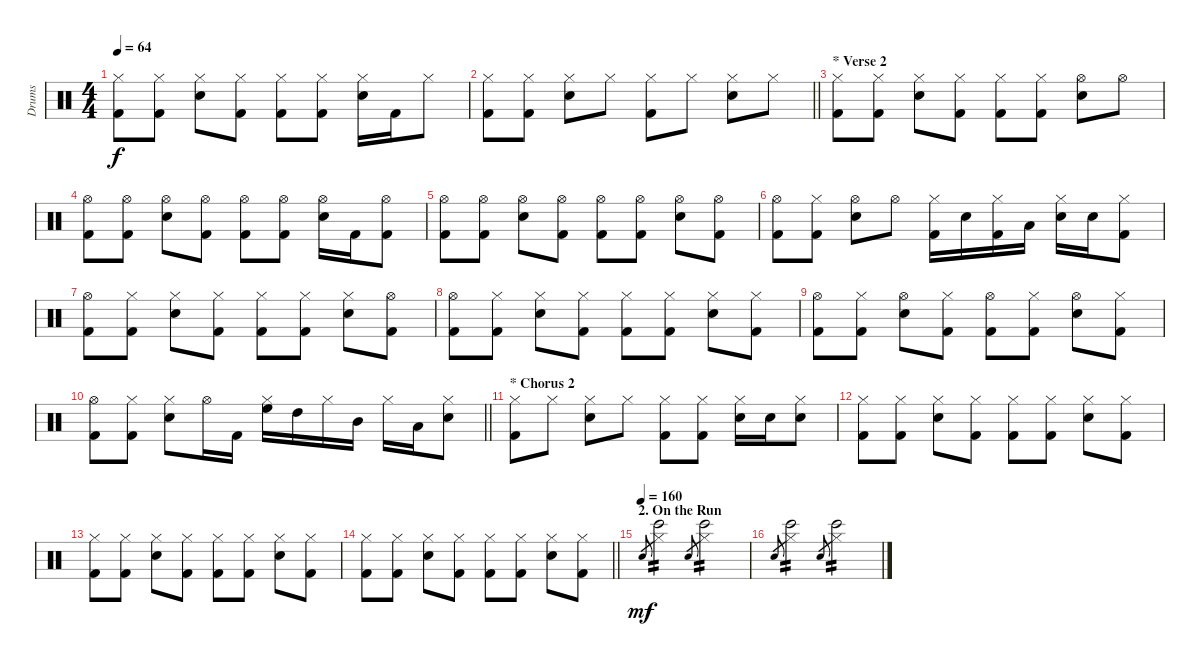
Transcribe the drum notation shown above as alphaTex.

\track ("Drums" "Drums") {instrument percussion}
\staff {score}
\articulation defaults
\ts (4 4)
\tempo 64
\clef neutral
\ks c
("Hi-Hat (closed)" "Kick (hit) 2").8{dy f} ("Hi-Hat (closed)" "Kick (hit) 2").8 ("Hi-Hat (closed)" "Electric Snare (hit)").8 ("Hi-Hat (closed)" "Kick (hit) 2").8 ("Hi-Hat (closed)" "Kick (hit) 2").8 ("Hi-Hat (closed)" "Kick (hit) 2").8 ("Hi-Hat (closed)" "Electric Snare (hit)").16 "Kick (hit) 2".16 "Hi-Hat (closed)".8 |
\barLineRight lightlight
("Hi-Hat (closed)" "Kick (hit) 2").8 ("Hi-Hat (closed)" "Kick (hit) 2").8 ("Hi-Hat (closed)" "Electric Snare (hit)").8 "Hi-Hat (closed)".8 ("Hi-Hat (closed)" "Kick (hit) 2").8 "Hi-Hat (closed)".8 ("Hi-Hat (closed)" "Electric Snare (hit)").8 "Hi-Hat (closed)".8 |
\section ("" "* Verse 2")
("Hi-Hat (closed)" "Kick (hit) 2").8 ("Hi-Hat (closed)" "Kick (hit) 2").8 ("Hi-Hat (closed)" "Electric Snare (hit)").8 ("Hi-Hat (closed)" "Kick (hit) 2").8 ("Hi-Hat (closed)" "Kick (hit) 2").8 ("Hi-Hat (closed)" "Kick (hit) 2").8 ("Hi-Hat (open)" "Electric Snare (hit)").8 "Hi-Hat (open)".8 |
("Hi-Hat (open)" "Kick (hit) 2").8 ("Hi-Hat (open)" "Kick (hit) 2").8 ("Hi-Hat (open)" "Electric Snare (hit)").8 ("Hi-Hat (open)" "Kick (hit) 2").8 ("Hi-Hat (open)" "Kick (hit) 2").8 ("Hi-Hat (open)" "Kick (hit) 2").8 ("Hi-Hat (open)" "Electric Snare (hit)").16 "Kick (hit) 2".16 ("Hi-Hat (open)" "Kick (hit) 2").8 |
("Hi-Hat (open)" "Kick (hit) 2").8 ("Hi-Hat (open)" "Kick (hit) 2").8 ("Hi-Hat (open)" "Electric Snare (hit)").8 ("Hi-Hat (open)" "Kick (hit) 2").8 ("Hi-Hat (open)" "Kick (hit) 2").8 ("Hi-Hat (open)" "Kick (hit) 2").8 ("Hi-Hat (open)" "Electric Snare (hit)").8 ("Hi-Hat (open)" "Kick (hit) 2").8 |
("Hi-Hat (open)" "Kick (hit) 2").8 ("Hi-Hat (closed)" "Kick (hit) 2").8 ("Hi-Hat (open)" "Electric Snare (hit)").8 "Hi-Hat (open)".8 ("Hi-Hat (closed)" "Kick (hit) 2").16 "Electric Snare (hit)".16 ("Hi-Hat (closed)" "Kick (hit) 2").16 "Low Tom (hit)".16 ("Hi-Hat (closed)" "Electric Snare (hit)").16 "Electric Snare (hit)".16 ("Hi-Hat (closed)" "Kick (hit) 2").8 |
("Hi-Hat (open)" "Kick (hit) 2").8 ("Hi-Hat (closed)" "Kick (hit) 2").8 ("Hi-Hat (closed)" "Electric Snare (hit)").8 ("Hi-Hat (closed)" "Kick (hit) 2").8 ("Hi-Hat (closed)" "Kick (hit) 2").8 ("Hi-Hat (closed)" "Kick (hit) 2").8 ("Hi-Hat (closed)" "Electric Snare (hit)").8 ("Hi-Hat (open)" "Kick (hit) 2").8 |
("Hi-Hat (open)" "Kick (hit) 2").8 ("Hi-Hat (closed)" "Kick (hit) 2").8 ("Hi-Hat (closed)" "Electric Snare (hit)").8 ("Hi-Hat (closed)" "Kick (hit) 2").8 ("Hi-Hat (closed)" "Kick (hit) 2").8 ("Hi-Hat (closed)" "Kick (hit) 2").8 ("Hi-Hat (closed)" "Electric Snare (hit)").8 ("Hi-Hat (closed)" "Kick (hit) 2").8 |
("Hi-Hat (open)" "Kick (hit) 2").8 ("Hi-Hat (closed)" "Kick (hit) 2").8 ("Hi-Hat (open)" "Electric Snare (hit)").8 ("Hi-Hat (closed)" "Kick (hit) 2").8 ("Hi-Hat (open)" "Kick (hit) 2").8 ("Hi-Hat (closed)" "Kick (hit) 2").8 ("Hi-Hat (open)" "Electric Snare (hit)").8 ("Hi-Hat (closed)" "Kick (hit) 2").8 |
\barLineRight lightlight
("Hi-Hat (open)" "Kick (hit) 2").8 ("Hi-Hat (closed)" "Kick (hit) 2").8 ("Hi-Hat (closed)" "Electric Snare (hit)").8 "Hi-Hat (open)".16 "Kick (hit) 2".16 ("Hi-Hat (closed)" "High Floor Tom (hit)").16 "High Tom (hit)".16 "Hi-Hat (closed)".16 "Mid Tom (hit)".16 "Hi-Hat (closed)".16 "Low Tom (hit)".16 ("Hi-Hat (closed)" "Electric Snare (hit)").8 |
\section ("" "* Chorus 2")
("Hi-Hat (closed)" "Kick (hit) 2").8 "Hi-Hat (closed)".8 ("Hi-Hat (closed)" "Electric Snare (hit)").8 "Hi-Hat (closed)".8 ("Hi-Hat (closed)" "Kick (hit) 2").8 ("Hi-Hat (closed)" "Kick (hit) 2").8 ("Hi-Hat (closed)" "Electric Snare (hit)").16 "Electric Snare (hit)".16 ("Hi-Hat (closed)" "Electric Snare (hit)").8 |
("Hi-Hat (closed)" "Kick (hit) 2").8 ("Hi-Hat (closed)" "Kick (hit) 2").8 ("Hi-Hat (closed)" "Electric Snare (hit)").8 ("Hi-Hat (closed)" "Kick (hit) 2").8 ("Hi-Hat (closed)" "Kick (hit) 2").8 ("Hi-Hat (closed)" "Kick (hit) 2").8 ("Hi-Hat (closed)" "Electric Snare (hit)").8 ("Hi-Hat (closed)" "Kick (hit) 2").8 |
("Hi-Hat (closed)" "Kick (hit) 2").8 ("Hi-Hat (closed)" "Kick (hit) 2").8 ("Hi-Hat (closed)" "Electric Snare (hit)").8 ("Hi-Hat (closed)" "Kick (hit) 2").8 ("Hi-Hat (closed)" "Kick (hit) 2").8 ("Hi-Hat (closed)" "Kick (hit) 2").8 ("Hi-Hat (closed)" "Electric Snare (hit)").8 ("Hi-Hat (closed)" "Kick (hit) 2").8 |
\barLineRight lightlight
("Hi-Hat (closed)" "Kick (hit) 2").8 ("Hi-Hat (closed)" "Kick (hit) 2").8 ("Hi-Hat (closed)" "Electric Snare (hit)").8 ("Hi-Hat (closed)" "Kick (hit) 2").8 ("Hi-Hat (closed)" "Kick (hit) 2").8 ("Hi-Hat (closed)" "Kick (hit) 2").8 ("Hi-Hat (closed)" "Electric Snare (hit)").8 ("Hi-Hat (closed)" "Kick (hit) 2").8 |
\section ("" "2. On the Run")
\tempo (160)
"Snare (hit)".8{gr dy mf} ("Hi-Hat (closed)" "Bongo High (hit)").2{tp 2 volume 12} "Snare (hit)".8{gr} ("Hi-Hat (closed)" "Bongo High (hit)").2{tp 2} |
"Snare (hit)".8{gr} ("Hi-Hat (closed)" "Bongo High (hit)").2{tp 2} "Snare (hit)".8{gr} ("Hi-Hat (closed)" "Bongo High (hit)").2{tp 2}
